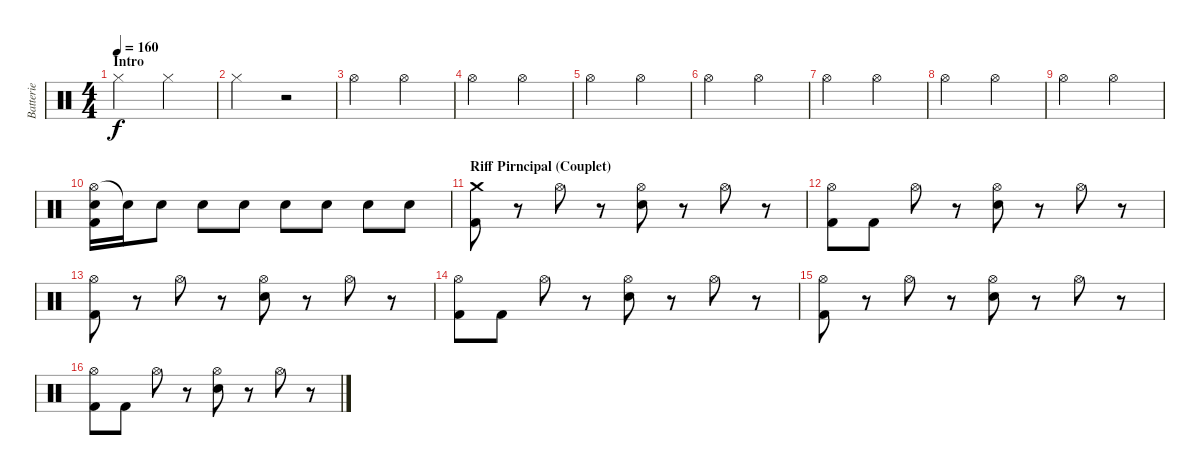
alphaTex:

\track ("Batterie" "Batterie") {instrument percussion}
\staff {score}
\articulation defaults
\ts (4 4)
\section ("" "Intro")
\tempo 160
\clef neutral
\ks c "Hi-Hat (closed)".2{dy f} "Hi-Hat (closed)".2
|
"Hi-Hat (closed)".2 r.2 |
"Hi-Hat (open)".2 "Hi-Hat (open)".2 |
"Hi-Hat (open)".2 "Hi-Hat (open)".2 |
"Hi-Hat (open)".2 "Hi-Hat (open)".2 |
"Hi-Hat (open)".2 "Hi-Hat (open)".2 |
"Hi-Hat (open)".2 "Hi-Hat (open)".2 |
"Hi-Hat (open)".2 "Hi-Hat (open)".2 |
"Hi-Hat (open)".2 "Hi-Hat (open)".2 |
("Hi-Hat (open)" "Electric Snare (hit)" "Kick (hit) 2").16 "Snare (hit)"{t}.16 "Electric Snare (hit)".8 "Electric Snare (hit)".8 "Electric Snare (hit)".8 "Electric Snare (hit)".8 "Electric Snare (hit)".8 "Electric Snare (hit)".8 "Electric Snare (hit)".8 |
\section ("" "Riff Pirncipal (Couplet)")
("Crash medium (hit)" "Kick (hit) 2").8 r.8 "Hi-Hat (open)".8 r.8 ("Hi-Hat (open)" "Electric Snare (hit)").8 r.8 "Hi-Hat (open)".8 r.8 |
("Hi-Hat (open)" "Kick (hit) 2").8 "Kick (hit) 2".8 "Hi-Hat (open)".8 r.8 ("Hi-Hat (open)" "Electric Snare (hit)").8 r.8 "Hi-Hat (open)".8 r.8 |
("Hi-Hat (open)" "Kick (hit) 2").8 r.8 "Hi-Hat (open)".8 r.8 ("Hi-Hat (open)" "Electric Snare (hit)").8 r.8 "Hi-Hat (open)".8 r.8 |
("Hi-Hat (open)" "Kick (hit) 2").8 "Kick (hit) 2".8 "Hi-Hat (open)".8 r.8 ("Hi-Hat (open)" "Electric Snare (hit)").8 r.8 "Hi-Hat (open)".8 r.8 |
("Hi-Hat (open)" "Kick (hit) 2").8 r.8 "Hi-Hat (open)".8 r.8 ("Hi-Hat (open)" "Electric Snare (hit)").8 r.8 "Hi-Hat (open)".8 r.8 |
("Hi-Hat (open)" "Kick (hit) 2").8 "Kick (hit) 2".8 "Hi-Hat (open)".8 r.8 ("Hi-Hat (open)" "Electric Snare (hit)").8 r.8 "Hi-Hat (open)".8 r.8
